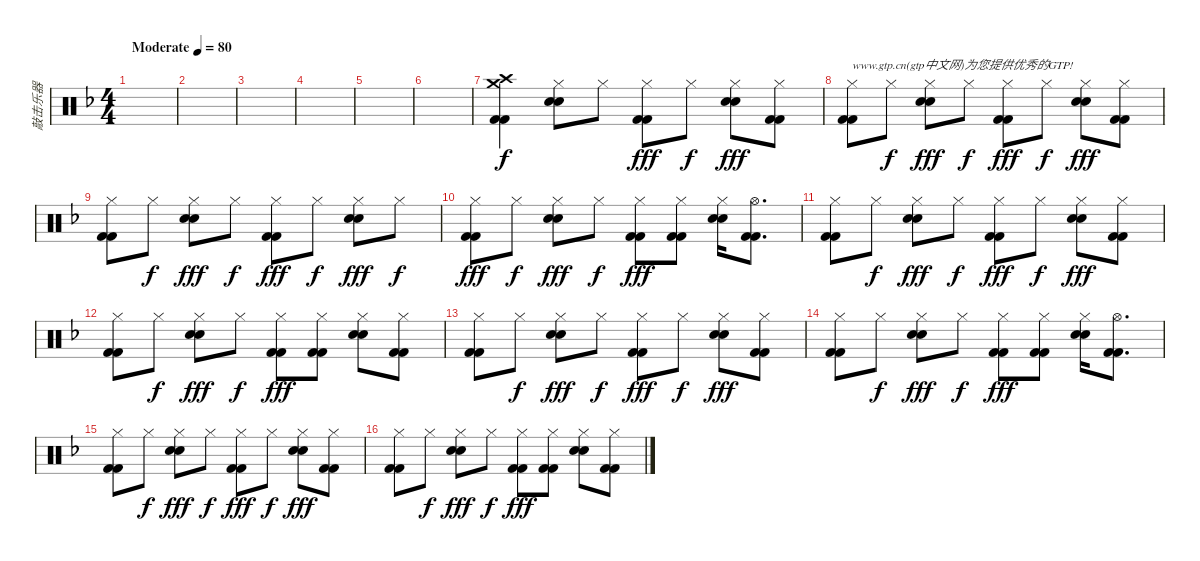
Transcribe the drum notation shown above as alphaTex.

\track ("敲击乐器" "敲击乐器") {instrument percussion}
\staff {score}
\articulation defaults
\ts (4 4)
\tempo (80 "Moderate")
\clef neutral
\ks f
|
|
|
|
|
|
("Crash high (hit)" "Crash medium (hit)" "Kick (hit) 2" "Kick (hit) 2").4 ("Hi-Hat (closed)" "Electric Snare (hit)" "Electric Snare (hit)").8 "Hi-Hat (closed)".8{dy f} ("Hi-Hat (closed)" "Kick (hit) 2" "Kick (hit) 2").8{dy fff} "Hi-Hat (closed)".8{dy f} ("Hi-Hat (closed)" "Electric Snare (hit)" "Electric Snare (hit)").8{dy fff} ("Hi-Hat (closed)" "Kick (hit) 2" "Kick (hit) 2").8 |
("Hi-Hat (closed)" "Kick (hit) 2" "Kick (hit) 2").8{txt "www.gtp.cn(gtp中文网)为您提供优秀的GTP!"} "Hi-Hat (closed)".8{dy f} ("Hi-Hat (closed)" "Electric Snare (hit)" "Electric Snare (hit)").8{dy fff} "Hi-Hat (closed)".8{dy f} ("Hi-Hat (closed)" "Kick (hit) 2" "Kick (hit) 2").8{dy fff} "Hi-Hat (closed)".8{dy f} ("Hi-Hat (closed)" "Electric Snare (hit)" "Electric Snare (hit)").8{dy fff} ("Hi-Hat (closed)" "Kick (hit) 2" "Kick (hit) 2").8 |
("Hi-Hat (closed)" "Kick (hit) 2" "Kick (hit) 2").8 "Hi-Hat (closed)".8{dy f} ("Hi-Hat (closed)" "Electric Snare (hit)" "Electric Snare (hit)").8{dy fff} "Hi-Hat (closed)".8{dy f} ("Hi-Hat (closed)" "Kick (hit) 2" "Kick (hit) 2").8{dy fff} "Hi-Hat (closed)".8{dy f} ("Hi-Hat (closed)" "Electric Snare (hit)" "Electric Snare (hit)").8{dy fff} "Hi-Hat (closed)".8{dy f} |
("Hi-Hat (closed)" "Kick (hit) 2" "Kick (hit) 2").8{dy fff} "Hi-Hat (closed)".8{dy f} ("Hi-Hat (closed)" "Electric Snare (hit)" "Electric Snare (hit)").8{dy fff} "Hi-Hat (closed)".8{dy f} ("Hi-Hat (closed)" "Kick (hit) 2" "Kick (hit) 2").8{dy fff} ("Hi-Hat (closed)" "Kick (hit) 2" "Kick (hit) 2").8 ("Hi-Hat (closed)" "Electric Snare (hit)" "Electric Snare (hit)").16 ("Hi-Hat (open)" "Kick (hit) 2" "Kick (hit) 2").8{d} |
("Hi-Hat (closed)" "Kick (hit) 2" "Kick (hit) 2").8 "Hi-Hat (closed)".8{dy f} ("Hi-Hat (closed)" "Electric Snare (hit)" "Electric Snare (hit)").8{dy fff} "Hi-Hat (closed)".8{dy f} ("Hi-Hat (closed)" "Kick (hit) 2" "Kick (hit) 2").8{dy fff} "Hi-Hat (closed)".8{dy f} ("Hi-Hat (closed)" "Electric Snare (hit)" "Electric Snare (hit)").8{dy fff} ("Hi-Hat (closed)" "Kick (hit) 2" "Kick (hit) 2").8 |
("Hi-Hat (closed)" "Kick (hit) 2" "Kick (hit) 2").8 "Hi-Hat (closed)".8{dy f} ("Hi-Hat (closed)" "Electric Snare (hit)" "Electric Snare (hit)").8{dy fff} "Hi-Hat (closed)".8{dy f} ("Hi-Hat (closed)" "Kick (hit) 2" "Kick (hit) 2").8{dy fff} ("Hi-Hat (closed)" "Kick (hit) 2" "Kick (hit) 2").8 ("Hi-Hat (closed)" "Electric Snare (hit)" "Electric Snare (hit)").8 ("Hi-Hat (closed)" "Kick (hit) 2" "Kick (hit) 2").8 |
("Hi-Hat (closed)" "Kick (hit) 2" "Kick (hit) 2").8 "Hi-Hat (closed)".8{dy f} ("Hi-Hat (closed)" "Electric Snare (hit)" "Electric Snare (hit)").8{dy fff} "Hi-Hat (closed)".8{dy f} ("Hi-Hat (closed)" "Kick (hit) 2" "Kick (hit) 2").8{dy fff} "Hi-Hat (closed)".8{dy f} ("Hi-Hat (closed)" "Electric Snare (hit)" "Electric Snare (hit)").8{dy fff} ("Hi-Hat (closed)" "Kick (hit) 2" "Kick (hit) 2").8 |
("Hi-Hat (closed)" "Kick (hit) 2" "Kick (hit) 2").8 "Hi-Hat (closed)".8{dy f} ("Hi-Hat (closed)" "Electric Snare (hit)" "Electric Snare (hit)").8{dy fff} "Hi-Hat (closed)".8{dy f} ("Hi-Hat (closed)" "Kick (hit) 2" "Kick (hit) 2").8{dy fff} ("Hi-Hat (closed)" "Kick (hit) 2" "Kick (hit) 2").8 ("Hi-Hat (closed)" "Electric Snare (hit)" "Electric Snare (hit)").16 ("Hi-Hat (open)" "Kick (hit) 2" "Kick (hit) 2").8{d} |
("Hi-Hat (closed)" "Kick (hit) 2" "Kick (hit) 2").8 "Hi-Hat (closed)".8{dy f} ("Hi-Hat (closed)" "Electric Snare (hit)" "Electric Snare (hit)").8{dy fff} "Hi-Hat (closed)".8{dy f} ("Hi-Hat (closed)" "Kick (hit) 2" "Kick (hit) 2").8{dy fff} "Hi-Hat (closed)".8{dy f} ("Hi-Hat (closed)" "Electric Snare (hit)" "Electric Snare (hit)").8{dy fff} ("Hi-Hat (closed)" "Kick (hit) 2" "Kick (hit) 2").8 |
("Hi-Hat (closed)" "Kick (hit) 2" "Kick (hit) 2").8 "Hi-Hat (closed)".8{dy f} ("Hi-Hat (closed)" "Electric Snare (hit)" "Electric Snare (hit)").8{dy fff} "Hi-Hat (closed)".8{dy f} ("Hi-Hat (closed)" "Kick (hit) 2" "Kick (hit) 2").8{dy fff} ("Hi-Hat (closed)" "Kick (hit) 2" "Kick (hit) 2").8 ("Hi-Hat (closed)" "Electric Snare (hit)" "Electric Snare (hit)").8 ("Hi-Hat (closed)" "Kick (hit) 2" "Kick (hit) 2").8
